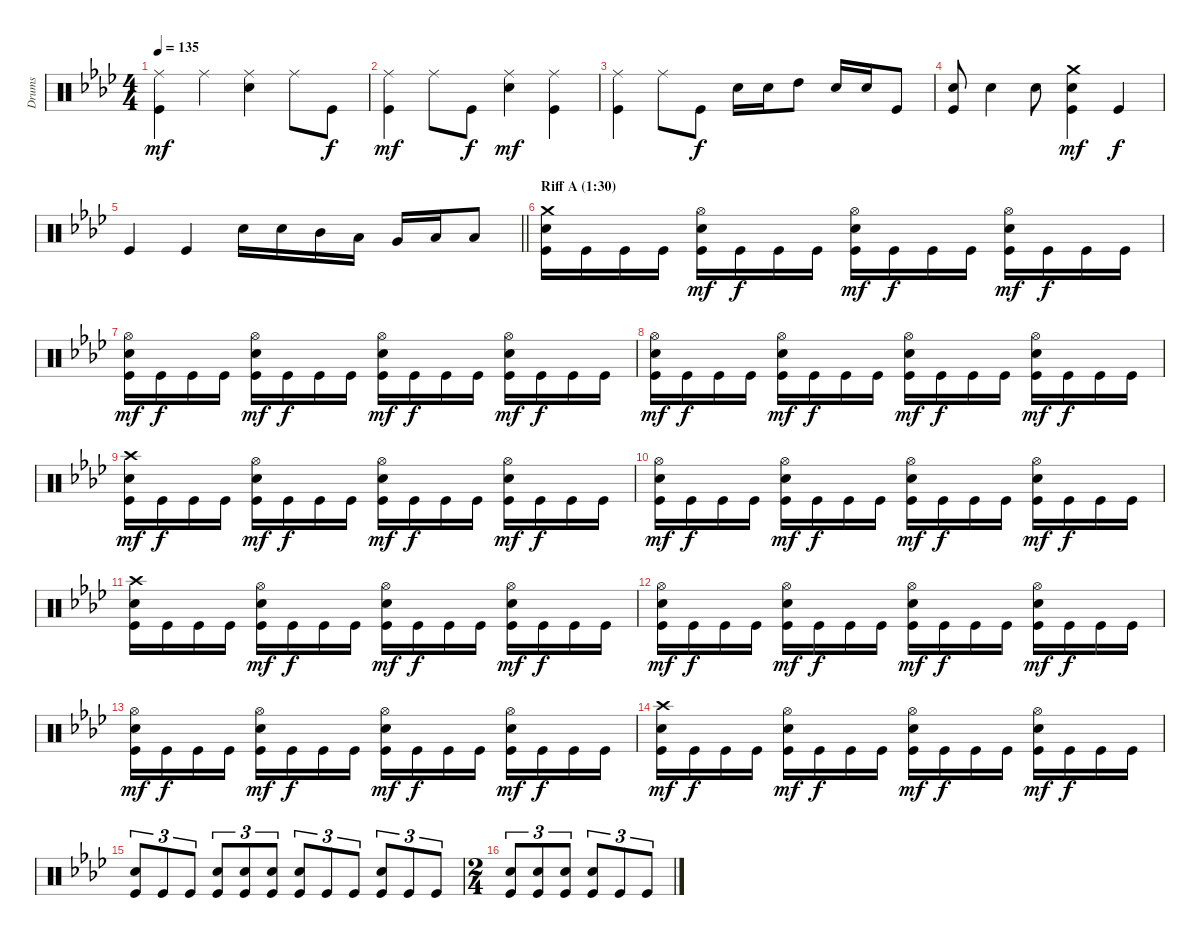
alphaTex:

\track ("Drums" "Drums") {instrument percussion}
\staff {score}
\articulation defaults
\ts (4 4)
\tempo 135
\clef neutral
\ks fminor
("Ride (middle)" "Kick (hit)").4{dy mf} "Ride (middle)".4 ("Ride (middle)" "Snare (hit) 2").4 "Ride (middle)".8 "Kick (hit)".8{dy f} |
("Ride (middle)" "Kick (hit)").4{dy mf} "Ride (middle)".8 "Kick (hit)".8{dy f} ("Ride (middle)" "Snare (hit) 2").4{dy mf} ("Ride (middle)" "Kick (hit)").4 |
("Ride (middle)" "Kick (hit)").4 "Ride (middle)".8 "Kick (hit)".8{dy f} "Snare (hit) 2".16 "Snare (hit) 2".16 "High Tom (hit)".8 "Snare (hit) 2".16 "Snare (hit) 2".16 "Kick (hit)".8 |
("Snare (hit) 2" "Kick (hit)").8 "Snare (hit) 2".4 "Snare (hit) 2".8 ("Crash medium (hit)" "Snare (hit) 2" "Kick (hit)").4{dy mf} "Kick (hit)".4{dy f} |
\barLineRight lightlight "Kick (hit)".4 "Kick (hit)".4 "Snare (hit) 2".16 "Snare (hit) 2".16 "Mid Tom (hit)".16 "Low Tom (hit)".16 "Very Low Tom (hit)".16 "Low Floor Tom (hit)".16 "Low Floor Tom (hit)".8
|
\section ("" "Riff A (1:30)")
("Crash medium (hit)" "Snare (hit) 2" "Kick (hit)").16 "Kick (hit)".16 "Kick (hit)".16 "Kick (hit)".16 ("Hi-Hat (open)" "Snare (hit) 2" "Kick (hit)").16{dy mf} "Kick (hit)".16{dy f} "Kick (hit)".16 "Kick (hit)".16 ("Hi-Hat (open)" "Snare (hit) 2" "Kick (hit)").16{dy mf} "Kick (hit)".16{dy f} "Kick (hit)".16 "Kick (hit)".16 ("Hi-Hat (open)" "Snare (hit) 2" "Kick (hit)").16{dy mf} "Kick (hit)".16{dy f} "Kick (hit)".16 "Kick (hit)".16 |
("Hi-Hat (open)" "Snare (hit) 2" "Kick (hit)").16{dy mf} "Kick (hit)".16{dy f} "Kick (hit)".16 "Kick (hit)".16 ("Hi-Hat (open)" "Snare (hit) 2" "Kick (hit)").16{dy mf} "Kick (hit)".16{dy f} "Kick (hit)".16 "Kick (hit)".16 ("Hi-Hat (open)" "Snare (hit) 2" "Kick (hit)").16{dy mf} "Kick (hit)".16{dy f} "Kick (hit)".16 "Kick (hit)".16 ("Hi-Hat (open)" "Snare (hit) 2" "Kick (hit)").16{dy mf} "Kick (hit)".16{dy f} "Kick (hit)".16 "Kick (hit)".16 |
("Hi-Hat (open)" "Snare (hit) 2" "Kick (hit)").16{dy mf} "Kick (hit)".16{dy f} "Kick (hit)".16 "Kick (hit)".16 ("Hi-Hat (open)" "Snare (hit) 2" "Kick (hit)").16{dy mf} "Kick (hit)".16{dy f} "Kick (hit)".16 "Kick (hit)".16 ("Hi-Hat (open)" "Snare (hit) 2" "Kick (hit)").16{dy mf} "Kick (hit)".16{dy f} "Kick (hit)".16 "Kick (hit)".16 ("Hi-Hat (open)" "Snare (hit) 2" "Kick (hit)").16{dy mf} "Kick (hit)".16{dy f} "Kick (hit)".16 "Kick (hit)".16 |
("Crash high (hit)" "Snare (hit) 2" "Kick (hit)").16{dy mf} "Kick (hit)".16{dy f} "Kick (hit)".16 "Kick (hit)".16 ("Hi-Hat (open)" "Snare (hit) 2" "Kick (hit)").16{dy mf} "Kick (hit)".16{dy f} "Kick (hit)".16 "Kick (hit)".16 ("Hi-Hat (open)" "Snare (hit) 2" "Kick (hit)").16{dy mf} "Kick (hit)".16{dy f} "Kick (hit)".16 "Kick (hit)".16 ("Hi-Hat (open)" "Snare (hit) 2" "Kick (hit)").16{dy mf} "Kick (hit)".16{dy f} "Kick (hit)".16 "Kick (hit)".16 |
("Hi-Hat (open)" "Snare (hit) 2" "Kick (hit)").16{dy mf} "Kick (hit)".16{dy f} "Kick (hit)".16 "Kick (hit)".16 ("Hi-Hat (open)" "Snare (hit) 2" "Kick (hit)").16{dy mf} "Kick (hit)".16{dy f} "Kick (hit)".16 "Kick (hit)".16 ("Hi-Hat (open)" "Snare (hit) 2" "Kick (hit)").16{dy mf} "Kick (hit)".16{dy f} "Kick (hit)".16 "Kick (hit)".16 ("Hi-Hat (open)" "Snare (hit) 2" "Kick (hit)").16{dy mf} "Kick (hit)".16{dy f} "Kick (hit)".16 "Kick (hit)".16 |
("Crash high (hit)" "Snare (hit) 2" "Kick (hit)").16 "Kick (hit)".16 "Kick (hit)".16 "Kick (hit)".16 ("Hi-Hat (open)" "Snare (hit) 2" "Kick (hit)").16{dy mf} "Kick (hit)".16{dy f} "Kick (hit)".16 "Kick (hit)".16 ("Hi-Hat (open)" "Snare (hit) 2" "Kick (hit)").16{dy mf} "Kick (hit)".16{dy f} "Kick (hit)".16 "Kick (hit)".16 ("Hi-Hat (open)" "Snare (hit) 2" "Kick (hit)").16{dy mf} "Kick (hit)".16{dy f} "Kick (hit)".16 "Kick (hit)".16 |
("Hi-Hat (open)" "Snare (hit) 2" "Kick (hit)").16{dy mf} "Kick (hit)".16{dy f} "Kick (hit)".16 "Kick (hit)".16 ("Hi-Hat (open)" "Snare (hit) 2" "Kick (hit)").16{dy mf} "Kick (hit)".16{dy f} "Kick (hit)".16 "Kick (hit)".16 ("Hi-Hat (open)" "Snare (hit) 2" "Kick (hit)").16{dy mf} "Kick (hit)".16{dy f} "Kick (hit)".16 "Kick (hit)".16 ("Hi-Hat (open)" "Snare (hit) 2" "Kick (hit)").16{dy mf} "Kick (hit)".16{dy f} "Kick (hit)".16 "Kick (hit)".16 |
("Hi-Hat (open)" "Snare (hit) 2" "Kick (hit)").16{dy mf} "Kick (hit)".16{dy f} "Kick (hit)".16 "Kick (hit)".16 ("Hi-Hat (open)" "Snare (hit) 2" "Kick (hit)").16{dy mf} "Kick (hit)".16{dy f} "Kick (hit)".16 "Kick (hit)".16 ("Hi-Hat (open)" "Snare (hit) 2" "Kick (hit)").16{dy mf} "Kick (hit)".16{dy f} "Kick (hit)".16 "Kick (hit)".16 ("Hi-Hat (open)" "Snare (hit) 2" "Kick (hit)").16{dy mf} "Kick (hit)".16{dy f} "Kick (hit)".16 "Kick (hit)".16 |
("Crash high (hit)" "Snare (hit) 2" "Kick (hit)").16{dy mf} "Kick (hit)".16{dy f} "Kick (hit)".16 "Kick (hit)".16 ("Hi-Hat (open)" "Snare (hit) 2" "Kick (hit)").16{dy mf} "Kick (hit)".16{dy f} "Kick (hit)".16 "Kick (hit)".16 ("Hi-Hat (open)" "Snare (hit) 2" "Kick (hit)").16{dy mf} "Kick (hit)".16{dy f} "Kick (hit)".16 "Kick (hit)".16 ("Hi-Hat (open)" "Snare (hit) 2" "Kick (hit)").16{dy mf} "Kick (hit)".16{dy f} "Kick (hit)".16 "Kick (hit)".16 |
("Snare (hit) 2" "Kick (hit)").8{tu (3 2)} "Kick (hit)".8{tu (3 2)} "Kick (hit)".8{tu (3 2)} ("Snare (hit) 2" "Kick (hit)").8{tu (3 2)} ("Snare (hit) 2" "Kick (hit)").8{tu (3 2)} ("Snare (hit) 2" "Kick (hit)").8{tu (3 2)} ("Snare (hit) 2" "Kick (hit)").8{tu (3 2)} "Kick (hit)".8{tu (3 2)} "Kick (hit)".8{tu (3 2)} ("Snare (hit) 2" "Kick (hit)").8{tu (3 2)} "Kick (hit)".8{tu (3 2)} "Kick (hit)".8{tu (3 2)} |
\ts (2 4)
("Snare (hit) 2" "Kick (hit)").8{tu (3 2)} ("Snare (hit) 2" "Kick (hit)").8{tu (3 2)} ("Snare (hit) 2" "Kick (hit)").8{tu (3 2)} ("Snare (hit) 2" "Kick (hit)").8{tu (3 2)} "Kick (hit)".8{tu (3 2)} "Kick (hit)".8{tu (3 2)}
